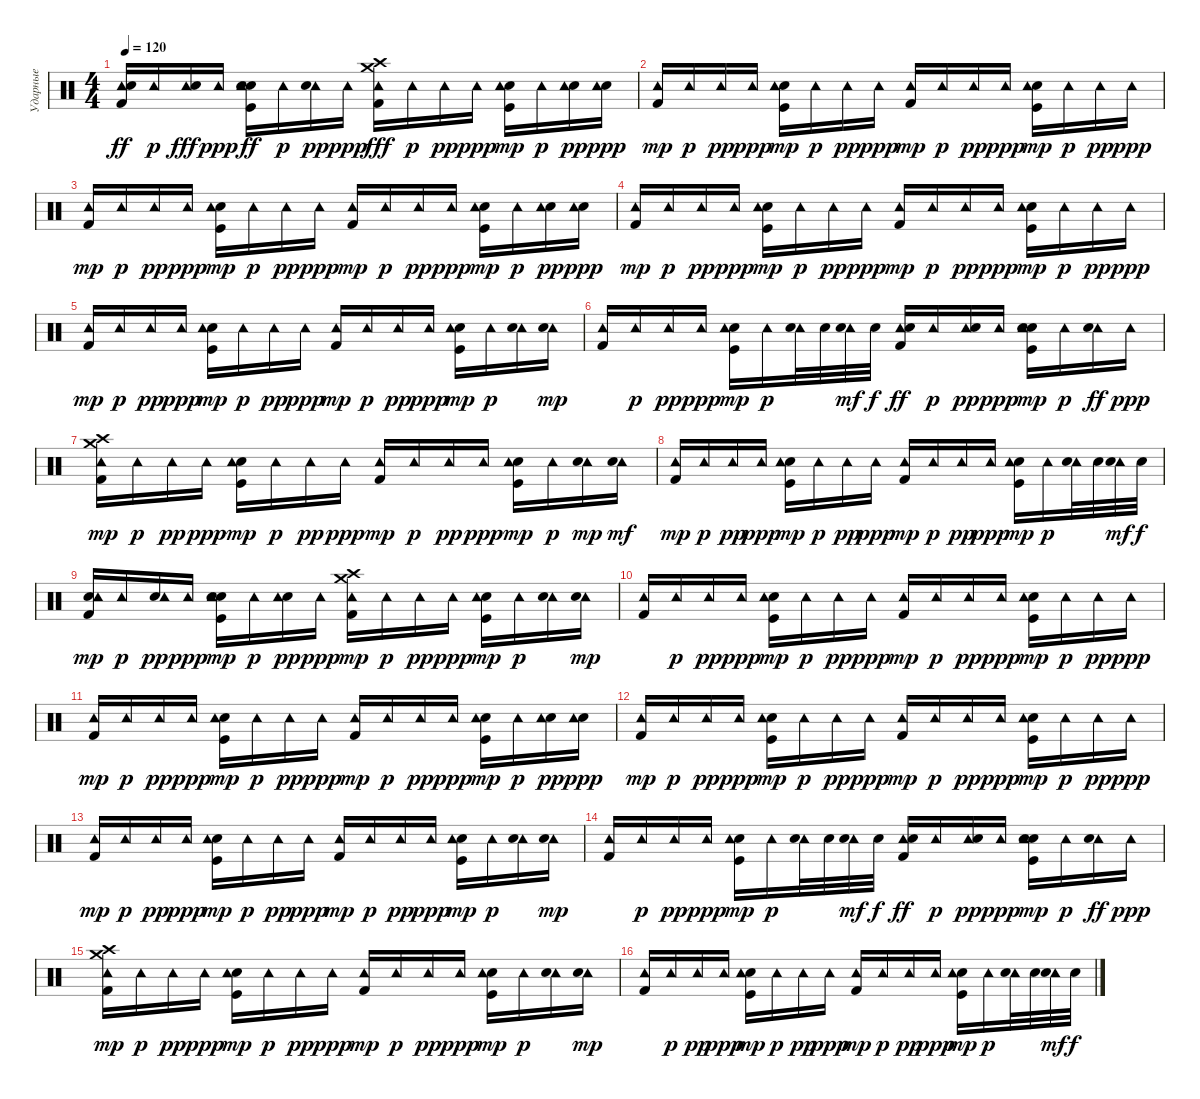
\track ("Ударные" "Ударные") {instrument percussion}
\staff {score}
\articulation defaults
\ts (4 4)
\tempo 120
\clef neutral
\ks c
("Kick (hit) 2" "Tambourine (hit)" "Electric Snare (hit)").16{dy ff} "Tambourine (hit)".16{dy p} ("Tambourine (hit)" "Electric Snare (hit)").16{dy fff} "Tambourine (hit)".16{dy ppp} ("Kick (hit)" "Snare (hit) 2" "Tambourine (hit)" "Electric Snare (hit)").16{dy ff} "Tambourine (hit)".16{dy p} ("Tambourine (hit)" "Electric Snare (hit)").16{dy pp} "Tambourine (hit)".16{dy ppp} ("Crash medium (hit)" "Kick (hit) 2" "Tambourine (hit)" "Crash high (hit)").16{dy fff} "Tambourine (hit)".16{dy p} "Tambourine (hit)".16{dy pp} "Tambourine (hit)".16{dy ppp} ("Kick (hit)" "Snare (hit) 2" "Tambourine (hit)").16{dy mp} "Tambourine (hit)".16{dy p} ("Electric Snare (hit)" "Tambourine (hit)").16{dy pp} ("Electric Snare (hit)" "Tambourine (hit)").16{dy ppp} |
("Kick (hit) 2" "Tambourine (hit)").16{dy mp} "Tambourine (hit)".16{dy p} "Tambourine (hit)".16{dy pp} "Tambourine (hit)".16{dy ppp} ("Kick (hit)" "Snare (hit) 2" "Tambourine (hit)").16{dy mp} "Tambourine (hit)".16{dy p} "Tambourine (hit)".16{dy pp} "Tambourine (hit)".16{dy ppp} ("Kick (hit) 2" "Tambourine (hit)").16{dy mp} "Tambourine (hit)".16{dy p} "Tambourine (hit)".16{dy pp} "Tambourine (hit)".16{dy ppp} ("Kick (hit)" "Snare (hit) 2" "Tambourine (hit)").16{dy mp} "Tambourine (hit)".16{dy p} "Tambourine (hit)".16{dy pp} "Tambourine (hit)".16{dy ppp} |
("Kick (hit) 2" "Tambourine (hit)").16{dy mp} "Tambourine (hit)".16{dy p} "Tambourine (hit)".16{dy pp} "Tambourine (hit)".16{dy ppp} ("Kick (hit)" "Snare (hit) 2" "Tambourine (hit)").16{dy mp} "Tambourine (hit)".16{dy p} "Tambourine (hit)".16{dy pp} "Tambourine (hit)".16{dy ppp} ("Kick (hit) 2" "Tambourine (hit)").16{dy mp} "Tambourine (hit)".16{dy p} "Tambourine (hit)".16{dy pp} "Tambourine (hit)".16{dy ppp} ("Kick (hit)" "Snare (hit) 2" "Tambourine (hit)").16{dy mp} "Tambourine (hit)".16{dy p} ("Electric Snare (hit)" "Tambourine (hit)").16{dy pp} ("Electric Snare (hit)" "Tambourine (hit)").16{dy ppp} |
("Kick (hit) 2" "Tambourine (hit)").16{dy mp} "Tambourine (hit)".16{dy p} "Tambourine (hit)".16{dy pp} "Tambourine (hit)".16{dy ppp} ("Kick (hit)" "Snare (hit) 2" "Tambourine (hit)").16{dy mp} "Tambourine (hit)".16{dy p} "Tambourine (hit)".16{dy pp} "Tambourine (hit)".16{dy ppp} ("Kick (hit) 2" "Tambourine (hit)").16{dy mp} "Tambourine (hit)".16{dy p} "Tambourine (hit)".16{dy pp} "Tambourine (hit)".16{dy ppp} ("Kick (hit)" "Snare (hit) 2" "Tambourine (hit)").16{dy mp} "Tambourine (hit)".16{dy p} "Tambourine (hit)".16{dy pp} "Tambourine (hit)".16{dy ppp} |
("Kick (hit) 2" "Tambourine (hit)").16{dy mp} "Tambourine (hit)".16{dy p} "Tambourine (hit)".16{dy pp} "Tambourine (hit)".16{dy ppp} ("Kick (hit)" "Snare (hit) 2" "Tambourine (hit)").16{dy mp} "Tambourine (hit)".16{dy p} "Tambourine (hit)".16{dy pp} "Tambourine (hit)".16{dy ppp} ("Kick (hit) 2" "Tambourine (hit)").16{dy mp} "Tambourine (hit)".16{dy p} "Tambourine (hit)".16{dy pp} "Tambourine (hit)".16{dy ppp} ("Kick (hit)" "Snare (hit) 2" "Tambourine (hit)").16{dy mp} "Tambourine (hit)".16{dy p} ("Tambourine (hit)" "Electric Snare (hit)").16 ("Tambourine (hit)" "Electric Snare (hit)").16{dy mp} |
("Kick (hit) 2" "Tambourine (hit)").16 "Tambourine (hit)".16{dy p} "Tambourine (hit)".16{dy pp} "Tambourine (hit)".16{dy ppp} ("Kick (hit)" "Snare (hit) 2" "Tambourine (hit)").16{dy mp} "Tambourine (hit)".16{dy p} ("Tambourine (hit)" "Electric Snare (hit)").32 "Electric Snare (hit)".32 ("Tambourine (hit)" "Electric Snare (hit)").32{dy mf} "Electric Snare (hit)".32{dy f} ("Kick (hit) 2" "Tambourine (hit)" "Electric Snare (hit)").16{dy ff} "Tambourine (hit)".16{dy p} ("Tambourine (hit)" "Electric Snare (hit)").16{dy pp} "Tambourine (hit)".16{dy ppp} ("Kick (hit)" "Snare (hit) 2" "Tambourine (hit)" "Electric Snare (hit)").16{dy mp} "Tambourine (hit)".16{dy p} ("Tambourine (hit)" "Electric Snare (hit)").16{dy ff} "Tambourine (hit)".16{dy ppp} |
("Crash medium (hit)" "Crash high (hit)" "Kick (hit) 2" "Tambourine (hit)").16{dy mp} "Tambourine (hit)".16{dy p} "Tambourine (hit)".16{dy pp} "Tambourine (hit)".16{dy ppp} ("Kick (hit)" "Snare (hit) 2" "Tambourine (hit)").16{dy mp} "Tambourine (hit)".16{dy p} "Tambourine (hit)".16{dy pp} "Tambourine (hit)".16{dy ppp} ("Kick (hit) 2" "Tambourine (hit)").16{dy mp} "Tambourine (hit)".16{dy p} "Tambourine (hit)".16{dy pp} "Tambourine (hit)".16{dy ppp} ("Kick (hit)" "Snare (hit) 2" "Tambourine (hit)").16{dy mp} "Tambourine (hit)".16{dy p} ("Tambourine (hit)" "Electric Snare (hit)").16{dy mp} ("Tambourine (hit)" "Electric Snare (hit)").16{dy mf} |
("Kick (hit) 2" "Tambourine (hit)").16{dy mp} "Tambourine (hit)".16{dy p} "Tambourine (hit)".16{dy pp} "Tambourine (hit)".16{dy ppp} ("Kick (hit)" "Snare (hit) 2" "Tambourine (hit)").16{dy mp} "Tambourine (hit)".16{dy p} "Tambourine (hit)".16{dy pp} "Tambourine (hit)".16{dy ppp} ("Kick (hit) 2" "Tambourine (hit)").16{dy mp} "Tambourine (hit)".16{dy p} "Tambourine (hit)".16{dy pp} "Tambourine (hit)".16{dy ppp} ("Kick (hit)" "Snare (hit) 2" "Tambourine (hit)").16{dy mp} "Tambourine (hit)".16{dy p} ("Tambourine (hit)" "Electric Snare (hit)").32 "Electric Snare (hit)".32 ("Tambourine (hit)" "Electric Snare (hit)").32{dy mf} "Electric Snare (hit)".32{dy f} |
("Electric Snare (hit)" "Kick (hit) 2" "Tambourine (hit)").16{dy mp} "Tambourine (hit)".16{dy p} ("Electric Snare (hit)" "Tambourine (hit)").16{dy pp} "Tambourine (hit)".16{dy ppp} ("Electric Snare (hit)" "Kick (hit)" "Snare (hit) 2" "Tambourine (hit)").16{dy mp} "Tambourine (hit)".16{dy p} ("Electric Snare (hit)" "Tambourine (hit)").16{dy pp} "Tambourine (hit)".16{dy ppp} ("Crash medium (hit)" "Crash high (hit)" "Kick (hit) 2" "Tambourine (hit)").16{dy mp} "Tambourine (hit)".16{dy p} "Tambourine (hit)".16{dy pp} "Tambourine (hit)".16{dy ppp} ("Kick (hit)" "Snare (hit) 2" "Tambourine (hit)").16{dy mp} "Tambourine (hit)".16{dy p} ("Tambourine (hit)" "Electric Snare (hit)").16 ("Tambourine (hit)" "Electric Snare (hit)").16{dy mp} |
("Kick (hit) 2" "Tambourine (hit)").16 "Tambourine (hit)".16{dy p} "Tambourine (hit)".16{dy pp} "Tambourine (hit)".16{dy ppp} ("Kick (hit)" "Snare (hit) 2" "Tambourine (hit)").16{dy mp} "Tambourine (hit)".16{dy p} "Tambourine (hit)".16{dy pp} "Tambourine (hit)".16{dy ppp} ("Kick (hit) 2" "Tambourine (hit)").16{dy mp} "Tambourine (hit)".16{dy p} "Tambourine (hit)".16{dy pp} "Tambourine (hit)".16{dy ppp} ("Kick (hit)" "Snare (hit) 2" "Tambourine (hit)").16{dy mp} "Tambourine (hit)".16{dy p} "Tambourine (hit)".16{dy pp} "Tambourine (hit)".16{dy ppp} |
("Kick (hit) 2" "Tambourine (hit)").16{dy mp} "Tambourine (hit)".16{dy p} "Tambourine (hit)".16{dy pp} "Tambourine (hit)".16{dy ppp} ("Kick (hit)" "Snare (hit) 2" "Tambourine (hit)").16{dy mp} "Tambourine (hit)".16{dy p} "Tambourine (hit)".16{dy pp} "Tambourine (hit)".16{dy ppp} ("Kick (hit) 2" "Tambourine (hit)").16{dy mp} "Tambourine (hit)".16{dy p} "Tambourine (hit)".16{dy pp} "Tambourine (hit)".16{dy ppp} ("Kick (hit)" "Snare (hit) 2" "Tambourine (hit)").16{dy mp} "Tambourine (hit)".16{dy p} ("Electric Snare (hit)" "Tambourine (hit)").16{dy pp} ("Electric Snare (hit)" "Tambourine (hit)").16{dy ppp} |
("Kick (hit) 2" "Tambourine (hit)").16{dy mp} "Tambourine (hit)".16{dy p} "Tambourine (hit)".16{dy pp} "Tambourine (hit)".16{dy ppp} ("Kick (hit)" "Snare (hit) 2" "Tambourine (hit)").16{dy mp} "Tambourine (hit)".16{dy p} "Tambourine (hit)".16{dy pp} "Tambourine (hit)".16{dy ppp} ("Kick (hit) 2" "Tambourine (hit)").16{dy mp} "Tambourine (hit)".16{dy p} "Tambourine (hit)".16{dy pp} "Tambourine (hit)".16{dy ppp} ("Kick (hit)" "Snare (hit) 2" "Tambourine (hit)").16{dy mp} "Tambourine (hit)".16{dy p} "Tambourine (hit)".16{dy pp} "Tambourine (hit)".16{dy ppp} |
("Kick (hit) 2" "Tambourine (hit)").16{dy mp} "Tambourine (hit)".16{dy p} "Tambourine (hit)".16{dy pp} "Tambourine (hit)".16{dy ppp} ("Kick (hit)" "Snare (hit) 2" "Tambourine (hit)").16{dy mp} "Tambourine (hit)".16{dy p} "Tambourine (hit)".16{dy pp} "Tambourine (hit)".16{dy ppp} ("Kick (hit) 2" "Tambourine (hit)").16{dy mp} "Tambourine (hit)".16{dy p} "Tambourine (hit)".16{dy pp} "Tambourine (hit)".16{dy ppp} ("Kick (hit)" "Snare (hit) 2" "Tambourine (hit)").16{dy mp} "Tambourine (hit)".16{dy p} ("Tambourine (hit)" "Electric Snare (hit)").16 ("Tambourine (hit)" "Electric Snare (hit)").16{dy mp} |
("Kick (hit) 2" "Tambourine (hit)").16 "Tambourine (hit)".16{dy p} "Tambourine (hit)".16{dy pp} "Tambourine (hit)".16{dy ppp} ("Kick (hit)" "Snare (hit) 2" "Tambourine (hit)").16{dy mp} "Tambourine (hit)".16{dy p} ("Tambourine (hit)" "Electric Snare (hit)").32 "Electric Snare (hit)".32 ("Tambourine (hit)" "Electric Snare (hit)").32{dy mf} "Electric Snare (hit)".32{dy f} ("Kick (hit) 2" "Tambourine (hit)" "Electric Snare (hit)").16{dy ff} "Tambourine (hit)".16{dy p} ("Tambourine (hit)" "Electric Snare (hit)").16{dy pp} "Tambourine (hit)".16{dy ppp} ("Kick (hit)" "Snare (hit) 2" "Tambourine (hit)" "Electric Snare (hit)").16{dy mp} "Tambourine (hit)".16{dy p} ("Tambourine (hit)" "Electric Snare (hit)").16{dy ff} "Tambourine (hit)".16{dy ppp} |
("Crash medium (hit)" "Crash high (hit)" "Kick (hit) 2" "Tambourine (hit)").16{dy mp} "Tambourine (hit)".16{dy p} "Tambourine (hit)".16{dy pp} "Tambourine (hit)".16{dy ppp} ("Kick (hit)" "Snare (hit) 2" "Tambourine (hit)").16{dy mp} "Tambourine (hit)".16{dy p} "Tambourine (hit)".16{dy pp} "Tambourine (hit)".16{dy ppp} ("Kick (hit) 2" "Tambourine (hit)").16{dy mp} "Tambourine (hit)".16{dy p} "Tambourine (hit)".16{dy pp} "Tambourine (hit)".16{dy ppp} ("Kick (hit)" "Snare (hit) 2" "Tambourine (hit)").16{dy mp} "Tambourine (hit)".16{dy p} ("Tambourine (hit)" "Electric Snare (hit)").16 ("Tambourine (hit)" "Electric Snare (hit)").16{dy mp} |
("Kick (hit) 2" "Tambourine (hit)").16 "Tambourine (hit)".16{dy p} "Tambourine (hit)".16{dy pp} "Tambourine (hit)".16{dy ppp} ("Kick (hit)" "Snare (hit) 2" "Tambourine (hit)").16{dy mp} "Tambourine (hit)".16{dy p} "Tambourine (hit)".16{dy pp} "Tambourine (hit)".16{dy ppp} ("Kick (hit) 2" "Tambourine (hit)").16{dy mp} "Tambourine (hit)".16{dy p} "Tambourine (hit)".16{dy pp} "Tambourine (hit)".16{dy ppp} ("Kick (hit)" "Snare (hit) 2" "Tambourine (hit)").16{dy mp} "Tambourine (hit)".16{dy p} ("Tambourine (hit)" "Electric Snare (hit)").32 "Electric Snare (hit)".32 ("Tambourine (hit)" "Electric Snare (hit)").32{dy mf} "Electric Snare (hit)".32{dy f}
